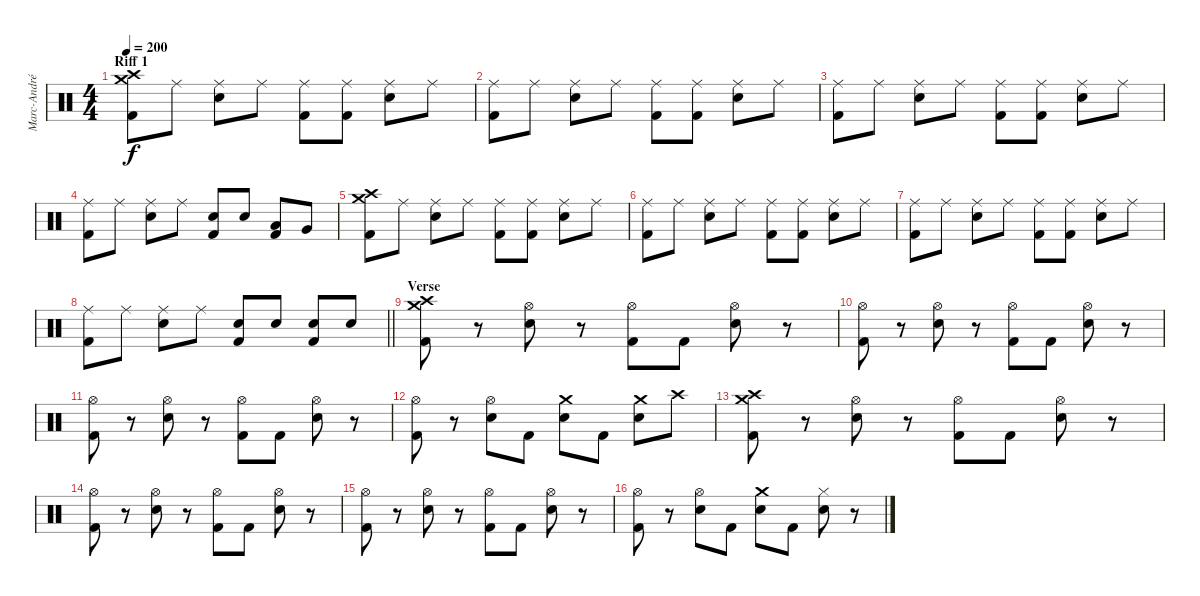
\track ("Marc-André Barabé" "Marc-André") {instrument percussion}
\staff {score}
\articulation defaults
\ts (4 4)
\section ("" "Riff 1")
\tempo 200
\clef neutral
\ks c
("Crash high (hit)" "Crash medium (hit)" "Kick (hit) 2").8{dy f} "Ride (middle)".8 ("Ride (middle)" "Electric Snare (hit)").8 "Ride (middle)".8 ("Ride (middle)" "Kick (hit) 2").8 ("Ride (middle)" "Kick (hit) 2").8 ("Ride (middle)" "Electric Snare (hit)").8 "Ride (middle)".8 |
("Ride (middle)" "Kick (hit) 2").8 "Ride (middle)".8 ("Ride (middle)" "Electric Snare (hit)").8 "Ride (middle)".8 ("Ride (middle)" "Kick (hit) 2").8 ("Ride (middle)" "Kick (hit) 2").8 ("Ride (middle)" "Electric Snare (hit)").8 "Ride (middle)".8 |
("Ride (middle)" "Kick (hit) 2").8 "Ride (middle)".8 ("Ride (middle)" "Electric Snare (hit)").8 "Ride (middle)".8 ("Ride (middle)" "Kick (hit) 2").8 ("Ride (middle)" "Kick (hit) 2").8 ("Ride (middle)" "Electric Snare (hit)").8 "Ride (middle)".8 |
("Ride (middle)" "Kick (hit) 2").8 "Ride (middle)".8 ("Ride (middle)" "Electric Snare (hit)").8 "Ride (middle)".8 ("Electric Snare (hit)"{tr (4 32)} "Kick (hit) 2").8 "Electric Snare (hit)"{tr (4 32)}.8 ("Low Tom (hit)"{tr (4 32)} "Kick (hit) 2").8 "Very Low Tom (hit)"{tr (4 32)}.8 |
("Crash high (hit)" "Crash medium (hit)" "Kick (hit) 2").8 "Ride (middle)".8 ("Ride (middle)" "Electric Snare (hit)").8 "Ride (middle)".8 ("Ride (middle)" "Kick (hit) 2").8 ("Ride (middle)" "Kick (hit) 2").8 ("Ride (middle)" "Electric Snare (hit)").8 "Ride (middle)".8 |
("Ride (middle)" "Kick (hit) 2").8 "Ride (middle)".8 ("Ride (middle)" "Electric Snare (hit)").8 "Ride (middle)".8 ("Ride (middle)" "Kick (hit) 2").8 ("Ride (middle)" "Kick (hit) 2").8 ("Ride (middle)" "Electric Snare (hit)").8 "Ride (middle)".8 |
("Ride (middle)" "Kick (hit) 2").8 "Ride (middle)".8 ("Ride (middle)" "Electric Snare (hit)").8 "Ride (middle)".8 ("Ride (middle)" "Kick (hit) 2").8 ("Ride (middle)" "Kick (hit) 2").8 ("Ride (middle)" "Electric Snare (hit)").8 "Ride (middle)".8 |
\barLineRight lightlight
("Ride (middle)" "Kick (hit) 2").8 "Ride (middle)".8 ("Ride (middle)" "Electric Snare (hit)").8 "Ride (middle)".8 ("Electric Snare (hit)"{tr (4 32)} "Kick (hit) 2").8 "Electric Snare (hit)"{tr (4 32)}.8 ("Electric Snare (hit)"{tr (4 32)} "Kick (hit) 2").8 "Electric Snare (hit)"{tr (4 32)}.8 |
\section ("" "Verse")
("Crash high (hit)" "Crash medium (hit)" "Kick (hit) 2").8 r.8 ("Hi-Hat (open)" "Electric Snare (hit)").8 r.8 ("Hi-Hat (open)" "Kick (hit) 2").8 "Kick (hit) 2".8 ("Hi-Hat (open)" "Electric Snare (hit)").8 r.8 |
("Hi-Hat (open)" "Kick (hit) 2").8 r.8 ("Hi-Hat (open)" "Electric Snare (hit)").8 r.8 ("Hi-Hat (open)" "Kick (hit) 2").8 "Kick (hit) 2".8 ("Hi-Hat (open)" "Electric Snare (hit)").8 r.8 |
("Hi-Hat (open)" "Kick (hit) 2").8 r.8 ("Hi-Hat (open)" "Electric Snare (hit)").8 r.8 ("Hi-Hat (open)" "Kick (hit) 2").8 "Kick (hit) 2".8 ("Hi-Hat (open)" "Electric Snare (hit)").8 r.8 |
("Hi-Hat (open)" "Kick (hit) 2").8 r.8 ("Hi-Hat (open)" "Electric Snare (hit)").8 "Kick (hit) 2".8 ("Crash medium (hit)" "Electric Snare (hit)").8 "Kick (hit) 2".8 ("Crash medium (hit)" "Electric Snare (hit)").8 "Crash high (hit)".8 |
("Crash high (hit)" "Crash medium (hit)" "Kick (hit) 2").8 r.8 ("Hi-Hat (open)" "Electric Snare (hit)").8 r.8 ("Hi-Hat (open)" "Kick (hit) 2").8 "Kick (hit) 2".8 ("Hi-Hat (open)" "Electric Snare (hit)").8 r.8 |
("Hi-Hat (open)" "Kick (hit) 2").8 r.8 ("Hi-Hat (open)" "Electric Snare (hit)").8 r.8 ("Hi-Hat (open)" "Kick (hit) 2").8 "Kick (hit) 2".8 ("Hi-Hat (open)" "Electric Snare (hit)").8 r.8 |
("Hi-Hat (open)" "Kick (hit) 2").8 r.8 ("Hi-Hat (open)" "Electric Snare (hit)").8 r.8 ("Hi-Hat (open)" "Kick (hit) 2").8 "Kick (hit) 2".8 ("Hi-Hat (open)" "Electric Snare (hit)").8 r.8 |
("Hi-Hat (open)" "Kick (hit) 2").8 r.8 ("Hi-Hat (open)" "Electric Snare (hit)").8 "Kick (hit) 2".8 ("Crash medium (hit)" "Electric Snare (hit)").8 "Kick (hit) 2".8 ("Hi-Hat (closed)" "Electric Snare (hit)").8 r.8
